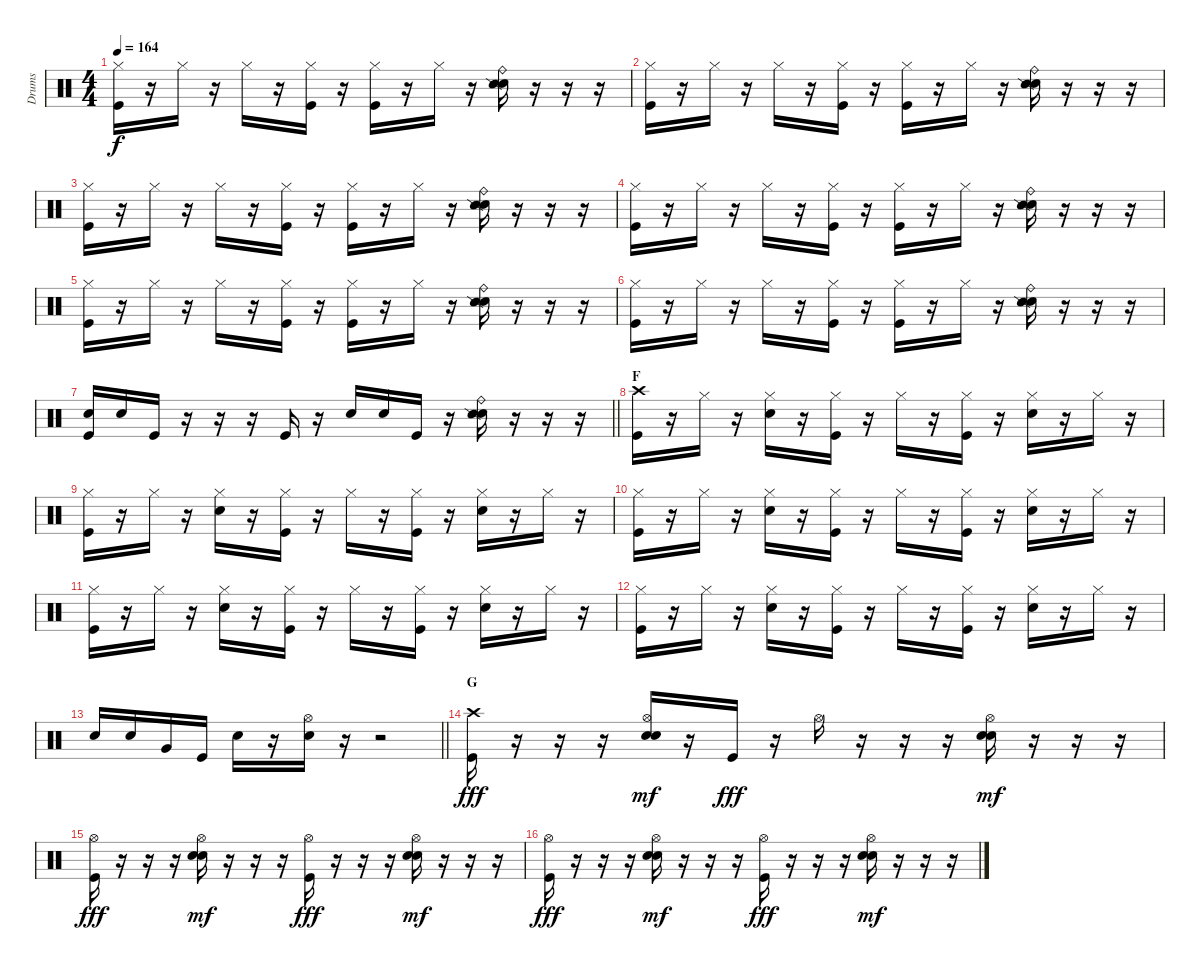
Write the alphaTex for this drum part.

\track ("Drums" "Drums") {instrument percussion}
\staff {score}
\articulation defaults
\ts (4 4)
\tempo 164
\clef neutral
\ks c
("Hi-Hat (closed)" "Kick (hit)").16{dy f} r.16 "Hi-Hat (closed)".16 r.16 "Hi-Hat (closed)".16 r.16 ("Hi-Hat (closed)" "Kick (hit)").16 r.16 ("Hi-Hat (closed)" "Kick (hit)").16 r.16 "Hi-Hat (closed)".16 r.16 ("Ride (bell)" "Electric Snare (hit)" "Snare (side stick) 2").16 r.16 r.16 r.16 |
("Hi-Hat (closed)" "Kick (hit)").16 r.16 "Hi-Hat (closed)".16 r.16 "Hi-Hat (closed)".16 r.16 ("Hi-Hat (closed)" "Kick (hit)").16 r.16 ("Hi-Hat (closed)" "Kick (hit)").16 r.16 "Hi-Hat (closed)".16 r.16 ("Ride (bell)" "Electric Snare (hit)" "Snare (side stick) 2").16 r.16 r.16 r.16 |
("Hi-Hat (closed)" "Kick (hit)").16 r.16 "Hi-Hat (closed)".16 r.16 "Hi-Hat (closed)".16 r.16 ("Hi-Hat (closed)" "Kick (hit)").16 r.16 ("Hi-Hat (closed)" "Kick (hit)").16 r.16 "Hi-Hat (closed)".16 r.16 ("Ride (bell)" "Electric Snare (hit)" "Snare (side stick) 2").16 r.16 r.16 r.16 |
("Hi-Hat (closed)" "Kick (hit)").16 r.16 "Hi-Hat (closed)".16 r.16 "Hi-Hat (closed)".16 r.16 ("Hi-Hat (closed)" "Kick (hit)").16 r.16 ("Hi-Hat (closed)" "Kick (hit)").16 r.16 "Hi-Hat (closed)".16 r.16 ("Ride (bell)" "Electric Snare (hit)" "Snare (side stick) 2").16 r.16 r.16 r.16 |
("Hi-Hat (closed)" "Kick (hit)").16 r.16 "Hi-Hat (closed)".16 r.16 "Hi-Hat (closed)".16 r.16 ("Hi-Hat (closed)" "Kick (hit)").16 r.16 ("Hi-Hat (closed)" "Kick (hit)").16 r.16 "Hi-Hat (closed)".16 r.16 ("Ride (bell)" "Electric Snare (hit)" "Snare (side stick) 2").16 r.16 r.16 r.16 |
("Hi-Hat (closed)" "Kick (hit)").16 r.16 "Hi-Hat (closed)".16 r.16 "Hi-Hat (closed)".16 r.16 ("Hi-Hat (closed)" "Kick (hit)").16 r.16 ("Hi-Hat (closed)" "Kick (hit)").16 r.16 "Hi-Hat (closed)".16 r.16 ("Ride (bell)" "Electric Snare (hit)" "Snare (side stick) 2").16 r.16 r.16 r.16 |
\barLineRight lightlight
("Electric Snare (hit)" "Kick (hit)").16 "Electric Snare (hit)".16 "Kick (hit)".16 r.16 r.16 r.16 "Kick (hit)".16 r.16 "Electric Snare (hit)".16 "Electric Snare (hit)".16 "Kick (hit)".16 r.16 ("Ride (bell)" "Electric Snare (hit)" "Snare (side stick) 2").16 r.16 r.16 r.16 |
\section ("" "F")
("Crash high (hit)" "Kick (hit)").16 r.16 "Hi-Hat (closed)".16 r.16 ("Hi-Hat (closed)" "Electric Snare (hit)").16 r.16 ("Hi-Hat (closed)" "Kick (hit)").16 r.16 "Hi-Hat (closed)".16 r.16 ("Hi-Hat (closed)" "Kick (hit)").16 r.16 ("Hi-Hat (closed)" "Electric Snare (hit)").16 r.16 "Hi-Hat (closed)".16 r.16 |
("Hi-Hat (closed)" "Kick (hit)").16 r.16 "Hi-Hat (closed)".16 r.16 ("Hi-Hat (closed)" "Electric Snare (hit)").16 r.16 ("Hi-Hat (closed)" "Kick (hit)").16 r.16 "Hi-Hat (closed)".16 r.16 ("Hi-Hat (closed)" "Kick (hit)").16 r.16 ("Hi-Hat (closed)" "Electric Snare (hit)").16 r.16 "Hi-Hat (closed)".16 r.16 |
("Hi-Hat (closed)" "Kick (hit)").16 r.16 "Hi-Hat (closed)".16 r.16 ("Hi-Hat (closed)" "Electric Snare (hit)").16 r.16 ("Hi-Hat (closed)" "Kick (hit)").16 r.16 "Hi-Hat (closed)".16 r.16 ("Hi-Hat (closed)" "Kick (hit)").16 r.16 ("Hi-Hat (closed)" "Electric Snare (hit)").16 r.16 "Hi-Hat (closed)".16 r.16 |
("Hi-Hat (closed)" "Kick (hit)").16 r.16 "Hi-Hat (closed)".16 r.16 ("Hi-Hat (closed)" "Electric Snare (hit)").16 r.16 ("Hi-Hat (closed)" "Kick (hit)").16 r.16 "Hi-Hat (closed)".16 r.16 ("Hi-Hat (closed)" "Kick (hit)").16 r.16 ("Hi-Hat (closed)" "Electric Snare (hit)").16 r.16 "Hi-Hat (closed)".16 r.16 |
("Hi-Hat (closed)" "Kick (hit)").16 r.16 "Hi-Hat (closed)".16 r.16 ("Hi-Hat (closed)" "Electric Snare (hit)").16 r.16 ("Hi-Hat (closed)" "Kick (hit)").16 r.16 "Hi-Hat (closed)".16 r.16 ("Hi-Hat (closed)" "Kick (hit)").16 r.16 ("Hi-Hat (closed)" "Electric Snare (hit)").16 r.16 "Hi-Hat (closed)".16 r.16 |
\barLineRight lightlight "Electric Snare (hit)".16 "Electric Snare (hit)".16 "Very Low Tom (hit)".16 "Kick (hit)".16 "Electric Snare (hit)".16
r.16 ("Hi-Hat (open)" "Electric Snare (hit)").16 r.16 r.2 |
\section ("" "G")
("Crash high (hit)" "Kick (hit)").16{dy fff} r.16 r.16 r.16 ("Hi-Hat (open)" "Electric Snare (hit)" "Snare (hit) 2").16{dy mf} r.16 "Kick (hit)".16{dy fff} r.16 "Hi-Hat (open)".16 r.16 r.16 r.16 ("Hi-Hat (open)" "Electric Snare (hit)" "Snare (hit) 2").16{dy mf} r.16 r.16 r.16 |
("Hi-Hat (open)" "Kick (hit)").16{dy fff} r.16 r.16 r.16 ("Hi-Hat (open)" "Electric Snare (hit)" "Snare (hit) 2").16{dy mf} r.16 r.16 r.16 ("Hi-Hat (open)" "Kick (hit)").16{dy fff} r.16 r.16 r.16 ("Hi-Hat (open)" "Electric Snare (hit)" "Snare (hit) 2").16{dy mf} r.16 r.16 r.16 |
("Hi-Hat (open)" "Kick (hit)").16{dy fff} r.16 r.16 r.16 ("Hi-Hat (open)" "Electric Snare (hit)" "Snare (hit) 2").16{dy mf} r.16 r.16 r.16 ("Hi-Hat (open)" "Kick (hit)").16{dy fff} r.16 r.16 r.16 ("Hi-Hat (open)" "Electric Snare (hit)" "Snare (hit) 2").16{dy mf} r.16 r.16 r.16
